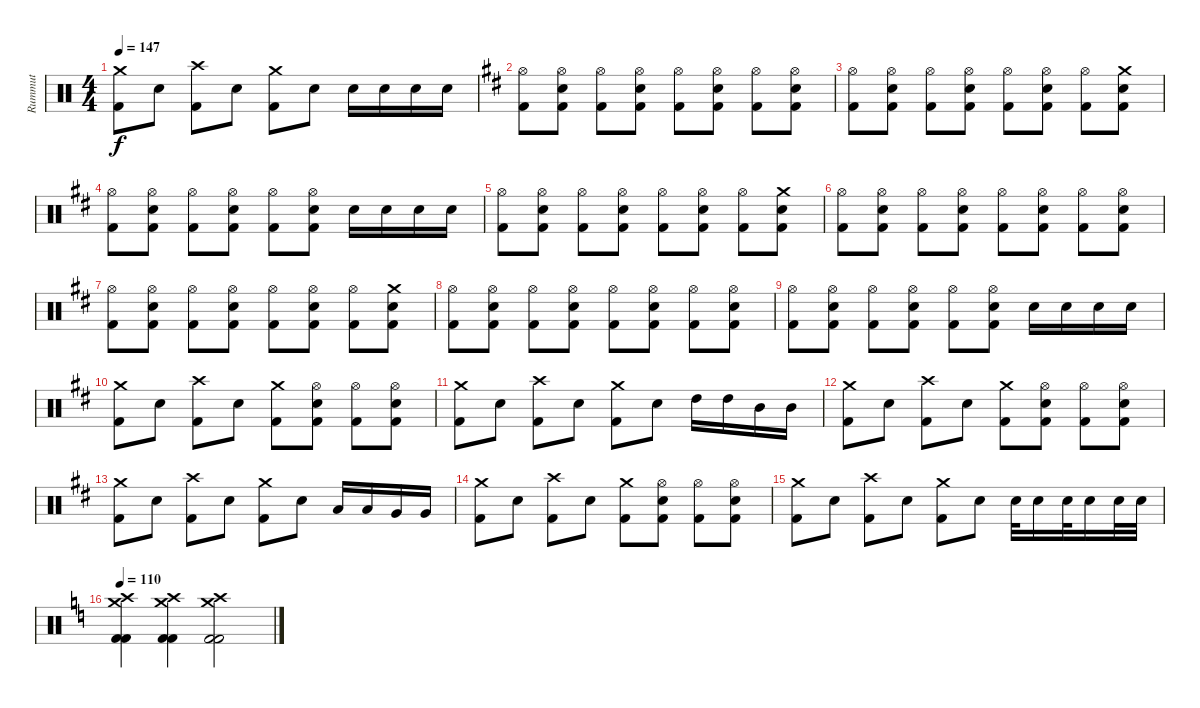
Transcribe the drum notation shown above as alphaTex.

\track ("Rummut" "Rummut") {instrument percussion}
\staff {score}
\articulation defaults
\ts (4 4)
\tempo 147
\clef neutral
\ks c
("Crash medium (hit)" "Kick (hit) 2").8{dy f} "Electric Snare (hit)".8 ("Crash high (hit)" "Kick (hit) 2").8 "Electric Snare (hit)".8 ("Crash medium (hit)" "Kick (hit) 2").8 "Electric Snare (hit)".8 "Electric Snare (hit)".16 "Electric Snare (hit)".16 "Electric Snare (hit)".16 "Electric Snare (hit)".16 |
\ks d
("Hi-Hat (open)" "Kick (hit) 2").8 ("Hi-Hat (open)" "Electric Snare (hit)" "Kick (hit) 2").8 ("Hi-Hat (open)" "Kick (hit) 2").8 ("Hi-Hat (open)" "Electric Snare (hit)" "Kick (hit) 2").8 ("Hi-Hat (open)" "Kick (hit) 2").8 ("Hi-Hat (open)" "Electric Snare (hit)" "Kick (hit) 2").8 ("Hi-Hat (open)" "Kick (hit) 2").8 ("Hi-Hat (open)" "Electric Snare (hit)" "Kick (hit) 2").8 |
("Hi-Hat (open)" "Kick (hit) 2").8 ("Hi-Hat (open)" "Electric Snare (hit)" "Kick (hit) 2").8 ("Hi-Hat (open)" "Kick (hit) 2").8 ("Hi-Hat (open)" "Electric Snare (hit)" "Kick (hit) 2").8 ("Hi-Hat (open)" "Kick (hit) 2").8 ("Hi-Hat (open)" "Electric Snare (hit)" "Kick (hit) 2").8 ("Hi-Hat (open)" "Kick (hit) 2").8 ("Crash medium (hit)" "Electric Snare (hit)" "Kick (hit) 2").8 |
("Hi-Hat (open)" "Kick (hit) 2").8 ("Hi-Hat (open)" "Electric Snare (hit)" "Kick (hit) 2").8 ("Hi-Hat (open)" "Kick (hit) 2").8 ("Hi-Hat (open)" "Electric Snare (hit)" "Kick (hit) 2").8 ("Hi-Hat (open)" "Kick (hit) 2").8 ("Hi-Hat (open)" "Electric Snare (hit)" "Kick (hit) 2").8 "Electric Snare (hit)".16 "Electric Snare (hit)".16 "Electric Snare (hit)".16 "Electric Snare (hit)".16 |
("Hi-Hat (open)" "Kick (hit) 2").8 ("Hi-Hat (open)" "Electric Snare (hit)" "Kick (hit) 2").8 ("Hi-Hat (open)" "Kick (hit) 2").8 ("Hi-Hat (open)" "Electric Snare (hit)" "Kick (hit) 2").8 ("Hi-Hat (open)" "Kick (hit) 2").8 ("Hi-Hat (open)" "Electric Snare (hit)" "Kick (hit) 2").8 ("Hi-Hat (open)" "Kick (hit) 2").8 ("Crash medium (hit)" "Electric Snare (hit)" "Kick (hit) 2").8 |
("Hi-Hat (open)" "Kick (hit) 2").8 ("Hi-Hat (open)" "Electric Snare (hit)" "Kick (hit) 2").8 ("Hi-Hat (open)" "Kick (hit) 2").8 ("Hi-Hat (open)" "Electric Snare (hit)" "Kick (hit) 2").8 ("Hi-Hat (open)" "Kick (hit) 2").8 ("Hi-Hat (open)" "Electric Snare (hit)" "Kick (hit) 2").8 ("Hi-Hat (open)" "Kick (hit) 2").8 ("Hi-Hat (open)" "Electric Snare (hit)" "Kick (hit) 2").8 |
("Hi-Hat (open)" "Kick (hit) 2").8 ("Hi-Hat (open)" "Electric Snare (hit)" "Kick (hit) 2").8 ("Hi-Hat (open)" "Kick (hit) 2").8 ("Hi-Hat (open)" "Electric Snare (hit)" "Kick (hit) 2").8 ("Hi-Hat (open)" "Kick (hit) 2").8 ("Hi-Hat (open)" "Electric Snare (hit)" "Kick (hit) 2").8 ("Hi-Hat (open)" "Kick (hit) 2").8 ("Crash medium (hit)" "Electric Snare (hit)" "Kick (hit) 2").8 |
("Hi-Hat (open)" "Kick (hit) 2").8 ("Hi-Hat (open)" "Electric Snare (hit)" "Kick (hit) 2").8 ("Hi-Hat (open)" "Kick (hit) 2").8 ("Hi-Hat (open)" "Electric Snare (hit)" "Kick (hit) 2").8 ("Hi-Hat (open)" "Kick (hit) 2").8 ("Hi-Hat (open)" "Electric Snare (hit)" "Kick (hit) 2").8 ("Hi-Hat (open)" "Kick (hit) 2").8 ("Hi-Hat (open)" "Electric Snare (hit)" "Kick (hit) 2").8 |
("Hi-Hat (open)" "Kick (hit) 2").8 ("Hi-Hat (open)" "Electric Snare (hit)" "Kick (hit) 2").8 ("Hi-Hat (open)" "Kick (hit) 2").8 ("Hi-Hat (open)" "Electric Snare (hit)" "Kick (hit) 2").8 ("Hi-Hat (open)" "Kick (hit) 2").8 ("Hi-Hat (open)" "Electric Snare (hit)" "Kick (hit) 2").8 "Electric Snare (hit)".16 "Electric Snare (hit)".16 "Electric Snare (hit)".16 "Electric Snare (hit)".16 |
("Crash medium (hit)" "Kick (hit) 2").8 "Electric Snare (hit)".8 ("Crash high (hit)" "Kick (hit) 2").8 "Electric Snare (hit)".8 ("Crash medium (hit)" "Kick (hit) 2").8 ("Hi-Hat (open)" "Electric Snare (hit)" "Kick (hit) 2").8 ("Hi-Hat (open)" "Kick (hit) 2").8 ("Hi-Hat (open)" "Electric Snare (hit)" "Kick (hit) 2").8 |
("Crash medium (hit)" "Kick (hit) 2").8 "Electric Snare (hit)".8 ("Crash high (hit)" "Kick (hit) 2").8 "Electric Snare (hit)".8 ("Crash medium (hit)" "Kick (hit) 2").8 "Electric Snare (hit)".8 "High Tom (hit)".16 "High Tom (hit)".16 "Mid Tom (hit)".16 "Mid Tom (hit)".16 |
("Crash medium (hit)" "Kick (hit) 2").8 "Electric Snare (hit)".8 ("Crash high (hit)" "Kick (hit) 2").8 "Electric Snare (hit)".8 ("Crash medium (hit)" "Kick (hit) 2").8 ("Hi-Hat (open)" "Electric Snare (hit)" "Kick (hit) 2").8 ("Hi-Hat (open)" "Kick (hit) 2").8 ("Hi-Hat (open)" "Electric Snare (hit)" "Kick (hit) 2").8 |
("Crash medium (hit)" "Kick (hit) 2").8 "Electric Snare (hit)".8 ("Crash high (hit)" "Kick (hit) 2").8 "Electric Snare (hit)".8 ("Crash medium (hit)" "Kick (hit) 2").8 "Electric Snare (hit)".8 "Low Tom (hit)".16 "Low Tom (hit)".16 "Very Low Tom (hit)".16 "Very Low Tom (hit)".16 |
("Crash medium (hit)" "Kick (hit) 2").8 "Electric Snare (hit)".8 ("Crash high (hit)" "Kick (hit) 2").8 "Electric Snare (hit)".8 ("Crash medium (hit)" "Kick (hit) 2").8 ("Hi-Hat (open)" "Electric Snare (hit)" "Kick (hit) 2").8 ("Hi-Hat (open)" "Kick (hit) 2").8 ("Hi-Hat (open)" "Electric Snare (hit)" "Kick (hit) 2").8 |
("Crash medium (hit)" "Kick (hit) 2").8 "Electric Snare (hit)".8 ("Crash high (hit)" "Kick (hit) 2").8 "Electric Snare (hit)".8 ("Crash medium (hit)" "Kick (hit) 2").8 "Electric Snare (hit)".8 "Electric Snare (hit)".32 "Electric Snare (hit)".16 "Electric Snare (hit)".32 "Electric Snare (hit)".16 "Electric Snare (hit)".32 "Electric Snare (hit)".32 |
\tempo 110
\ks c
("Crash medium (hit)" "Crash high (hit)" "Kick (hit) 2" "Kick (hit) 2").4 ("Crash medium (hit)" "Crash high (hit)" "Kick (hit) 2" "Kick (hit) 2").4 ("Crash medium (hit)" "Crash high (hit)" "Kick (hit) 2" "Kick (hit) 2").2
